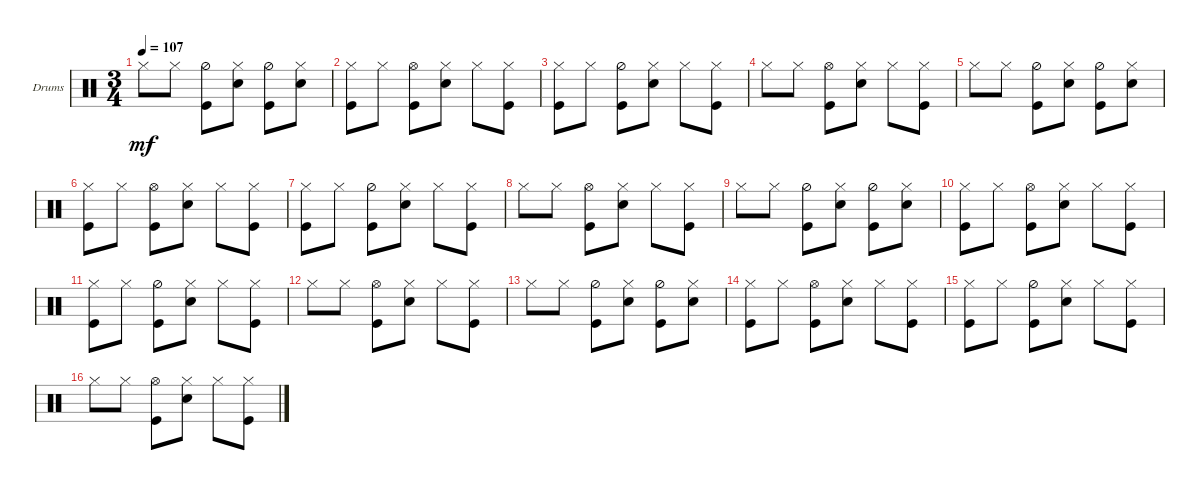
\defaultSystemsLayout 4
\bracketExtendMode groupsimilarinstruments
\firstSystemTrackNameOrientation horizontal
\otherSystemsTrackNameOrientation horizontal
\track ("Drumkit" "Drums") {instrument percussion}
\staff {score}
\articulation defaults
\ts (3 4)
\tempo 107
\clef neutral
\ks c "Hi-Hat (closed)".8{dy mf} "Hi-Hat (closed)".8
("Hi-Hat (half)" "Kick (hit)").8 ("Hi-Hat (closed)" "Snare (hit) 2").8 ("Hi-Hat (half)" "Kick (hit)").8 ("Hi-Hat (closed)" "Snare (hit) 2").8 |
("Hi-Hat (closed)" "Kick (hit)").8 "Hi-Hat (closed)".8 ("Hi-Hat (open)" "Kick (hit)").8 ("Snare (hit) 2" "Hi-Hat (closed)").8 "Hi-Hat (closed)".8 ("Hi-Hat (closed)" "Kick (hit)").8 |
("Hi-Hat (closed)" "Kick (hit)").8 "Hi-Hat (closed)".8 ("Hi-Hat (half)" "Kick (hit)").8 ("Hi-Hat (closed)" "Snare (hit) 2").8 "Hi-Hat (closed)".8 ("Hi-Hat (closed)" "Kick (hit)").8 |
"Hi-Hat (closed)".8 "Hi-Hat (closed)".8 ("Hi-Hat (open)" "Kick (hit)").8 ("Snare (hit) 2" "Hi-Hat (closed)").8 "Hi-Hat (closed)".8 ("Kick (hit)" "Hi-Hat (closed)").8 |
"Hi-Hat (closed)".8 "Hi-Hat (closed)".8 ("Hi-Hat (half)" "Kick (hit)").8 ("Hi-Hat (closed)" "Snare (hit) 2").8 ("Hi-Hat (half)" "Kick (hit)").8 ("Hi-Hat (closed)" "Snare (hit) 2").8 |
("Hi-Hat (closed)" "Kick (hit)").8 "Hi-Hat (closed)".8 ("Hi-Hat (open)" "Kick (hit)").8 ("Snare (hit) 2" "Hi-Hat (closed)").8 "Hi-Hat (closed)".8 ("Hi-Hat (closed)" "Kick (hit)").8 |
("Hi-Hat (closed)" "Kick (hit)").8 "Hi-Hat (closed)".8 ("Hi-Hat (half)" "Kick (hit)").8 ("Hi-Hat (closed)" "Snare (hit) 2").8 "Hi-Hat (closed)".8 ("Hi-Hat (closed)" "Kick (hit)").8 |
"Hi-Hat (closed)".8 "Hi-Hat (closed)".8 ("Hi-Hat (open)" "Kick (hit)").8 ("Snare (hit) 2" "Hi-Hat (closed)").8 "Hi-Hat (closed)".8 ("Kick (hit)" "Hi-Hat (closed)").8 |
"Hi-Hat (closed)".8 "Hi-Hat (closed)".8 ("Hi-Hat (half)" "Kick (hit)").8 ("Hi-Hat (closed)" "Snare (hit) 2").8 ("Hi-Hat (half)" "Kick (hit)").8 ("Hi-Hat (closed)" "Snare (hit) 2").8 |
("Hi-Hat (closed)" "Kick (hit)").8 "Hi-Hat (closed)".8 ("Hi-Hat (open)" "Kick (hit)").8 ("Snare (hit) 2" "Hi-Hat (closed)").8 "Hi-Hat (closed)".8 ("Hi-Hat (closed)" "Kick (hit)").8 |
("Hi-Hat (closed)" "Kick (hit)").8 "Hi-Hat (closed)".8 ("Hi-Hat (half)" "Kick (hit)").8 ("Hi-Hat (closed)" "Snare (hit) 2").8 "Hi-Hat (closed)".8 ("Hi-Hat (closed)" "Kick (hit)").8 |
"Hi-Hat (closed)".8 "Hi-Hat (closed)".8 ("Hi-Hat (open)" "Kick (hit)").8 ("Snare (hit) 2" "Hi-Hat (closed)").8 "Hi-Hat (closed)".8 ("Kick (hit)" "Hi-Hat (closed)").8 |
"Hi-Hat (closed)".8 "Hi-Hat (closed)".8 ("Hi-Hat (half)" "Kick (hit)").8 ("Hi-Hat (closed)" "Snare (hit) 2").8 ("Hi-Hat (half)" "Kick (hit)").8 ("Hi-Hat (closed)" "Snare (hit) 2").8 |
("Hi-Hat (closed)" "Kick (hit)").8 "Hi-Hat (closed)".8 ("Hi-Hat (open)" "Kick (hit)").8 ("Snare (hit) 2" "Hi-Hat (closed)").8 "Hi-Hat (closed)".8 ("Hi-Hat (closed)" "Kick (hit)").8 |
("Hi-Hat (closed)" "Kick (hit)").8 "Hi-Hat (closed)".8 ("Hi-Hat (half)" "Kick (hit)").8 ("Hi-Hat (closed)" "Snare (hit) 2").8 "Hi-Hat (closed)".8 ("Hi-Hat (closed)" "Kick (hit)").8 |
"Hi-Hat (closed)".8 "Hi-Hat (closed)".8 ("Hi-Hat (open)" "Kick (hit)").8 ("Snare (hit) 2" "Hi-Hat (closed)").8 "Hi-Hat (closed)".8 ("Kick (hit)" "Hi-Hat (closed)").8
